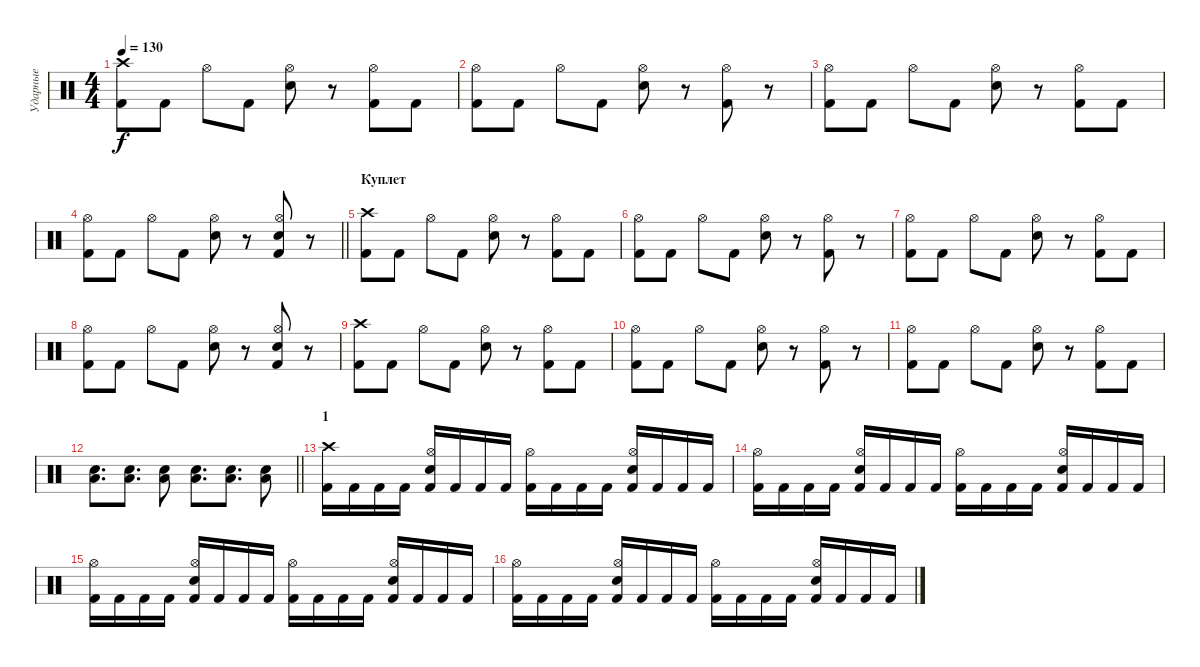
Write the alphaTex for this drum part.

\track ("Ударные" "Ударные") {instrument percussion}
\staff {score}
\articulation defaults
\ts (4 4)
\tempo 130
\clef neutral
\ks c
("Kick (hit) 2" "Crash high (hit)").8{dy f} "Kick (hit) 2".8 "Hi-Hat (open)".8 "Kick (hit) 2".8 ("Electric Snare (hit)" "Hi-Hat (open)").8 r.8 ("Kick (hit) 2" "Hi-Hat (open)").8 "Kick (hit) 2".8 |
("Kick (hit) 2" "Hi-Hat (open)").8 "Kick (hit) 2".8 "Hi-Hat (open)".8 "Kick (hit) 2".8 ("Electric Snare (hit)" "Hi-Hat (open)").8 r.8 ("Kick (hit) 2" "Hi-Hat (open)").8 r.8 |
("Kick (hit) 2" "Hi-Hat (open)").8 "Kick (hit) 2".8 "Hi-Hat (open)".8 "Kick (hit) 2".8 ("Electric Snare (hit)" "Hi-Hat (open)").8 r.8 ("Kick (hit) 2" "Hi-Hat (open)").8 "Kick (hit) 2".8 |
\barLineRight lightlight
("Kick (hit) 2" "Hi-Hat (open)").8 "Kick (hit) 2".8 "Hi-Hat (open)".8 "Kick (hit) 2".8 ("Electric Snare (hit)" "Hi-Hat (open)").8 r.8 ("Kick (hit) 2" "Electric Snare (hit)" "Hi-Hat (open)").8 r.8 |
\section ("" "Куплет")
("Kick (hit) 2" "Crash high (hit)").8 "Kick (hit) 2".8 "Hi-Hat (open)".8 "Kick (hit) 2".8 ("Electric Snare (hit)" "Hi-Hat (open)").8 r.8 ("Kick (hit) 2" "Hi-Hat (open)").8 "Kick (hit) 2".8 |
("Kick (hit) 2" "Hi-Hat (open)").8 "Kick (hit) 2".8 "Hi-Hat (open)".8 "Kick (hit) 2".8 ("Electric Snare (hit)" "Hi-Hat (open)").8 r.8 ("Kick (hit) 2" "Hi-Hat (open)").8 r.8 |
("Kick (hit) 2" "Hi-Hat (open)").8 "Kick (hit) 2".8 "Hi-Hat (open)".8 "Kick (hit) 2".8 ("Electric Snare (hit)" "Hi-Hat (open)").8 r.8 ("Kick (hit) 2" "Hi-Hat (open)").8 "Kick (hit) 2".8 |
("Kick (hit) 2" "Hi-Hat (open)").8 "Kick (hit) 2".8 "Hi-Hat (open)".8 "Kick (hit) 2".8 ("Electric Snare (hit)" "Hi-Hat (open)").8 r.8 ("Kick (hit) 2" "Electric Snare (hit)" "Hi-Hat (open)").8 r.8 |
("Kick (hit) 2" "Crash high (hit)").8 "Kick (hit) 2".8 "Hi-Hat (open)".8 "Kick (hit) 2".8 ("Electric Snare (hit)" "Hi-Hat (open)").8 r.8 ("Kick (hit) 2" "Hi-Hat (open)").8 "Kick (hit) 2".8 |
("Kick (hit) 2" "Hi-Hat (open)").8 "Kick (hit) 2".8 "Hi-Hat (open)".8 "Kick (hit) 2".8 ("Electric Snare (hit)" "Hi-Hat (open)").8 r.8 ("Kick (hit) 2" "Hi-Hat (open)").8 r.8 |
("Kick (hit) 2" "Hi-Hat (open)").8 "Kick (hit) 2".8 "Hi-Hat (open)".8 "Kick (hit) 2".8 ("Electric Snare (hit)" "Hi-Hat (open)").8 r.8 ("Kick (hit) 2" "Hi-Hat (open)").8 "Kick (hit) 2".8 |
\barLineRight lightlight
("Low Floor Tom (hit)" "Electric Snare (hit)").8{d} ("Low Floor Tom (hit)" "Electric Snare (hit)").8{d} ("Low Floor Tom (hit)" "Electric Snare (hit)").8 ("Low Floor Tom (hit)" "Electric Snare (hit)").8{d} ("Low Floor Tom (hit)" "Electric Snare (hit)").8{d} ("Low Floor Tom (hit)" "Electric Snare (hit)").8 |
\section ("" "1")
("Kick (hit) 2" "Crash high (hit)").16 "Kick (hit) 2".16 "Kick (hit) 2".16 "Kick (hit) 2".16 ("Kick (hit) 2" "Electric Snare (hit)" "Hi-Hat (open)").16 "Kick (hit) 2".16 "Kick (hit) 2".16 "Kick (hit) 2".16 ("Kick (hit) 2" "Hi-Hat (open)").16 "Kick (hit) 2".16 "Kick (hit) 2".16 "Kick (hit) 2".16 ("Kick (hit) 2" "Electric Snare (hit)" "Hi-Hat (open)").16 "Kick (hit) 2".16 "Kick (hit) 2".16 "Kick (hit) 2".16 |
("Kick (hit) 2" "Hi-Hat (open)").16 "Kick (hit) 2".16 "Kick (hit) 2".16 "Kick (hit) 2".16 ("Kick (hit) 2" "Electric Snare (hit)" "Hi-Hat (open)").16 "Kick (hit) 2".16 "Kick (hit) 2".16 "Kick (hit) 2".16 ("Kick (hit) 2" "Hi-Hat (open)").16 "Kick (hit) 2".16 "Kick (hit) 2".16 "Kick (hit) 2".16 ("Kick (hit) 2" "Electric Snare (hit)" "Hi-Hat (open)").16 "Kick (hit) 2".16 "Kick (hit) 2".16 "Kick (hit) 2".16 |
("Kick (hit) 2" "Hi-Hat (open)").16 "Kick (hit) 2".16 "Kick (hit) 2".16 "Kick (hit) 2".16 ("Kick (hit) 2" "Electric Snare (hit)" "Hi-Hat (open)").16 "Kick (hit) 2".16 "Kick (hit) 2".16 "Kick (hit) 2".16 ("Kick (hit) 2" "Hi-Hat (open)").16 "Kick (hit) 2".16 "Kick (hit) 2".16 "Kick (hit) 2".16 ("Kick (hit) 2" "Electric Snare (hit)" "Hi-Hat (open)").16 "Kick (hit) 2".16 "Kick (hit) 2".16 "Kick (hit) 2".16 |
("Kick (hit) 2" "Hi-Hat (open)").16 "Kick (hit) 2".16 "Kick (hit) 2".16 "Kick (hit) 2".16 ("Kick (hit) 2" "Electric Snare (hit)" "Hi-Hat (open)").16 "Kick (hit) 2".16 "Kick (hit) 2".16 "Kick (hit) 2".16 ("Kick (hit) 2" "Hi-Hat (open)").16 "Kick (hit) 2".16 "Kick (hit) 2".16 "Kick (hit) 2".16 ("Kick (hit) 2" "Electric Snare (hit)" "Hi-Hat (open)").16 "Kick (hit) 2".16 "Kick (hit) 2".16 "Kick (hit) 2".16
